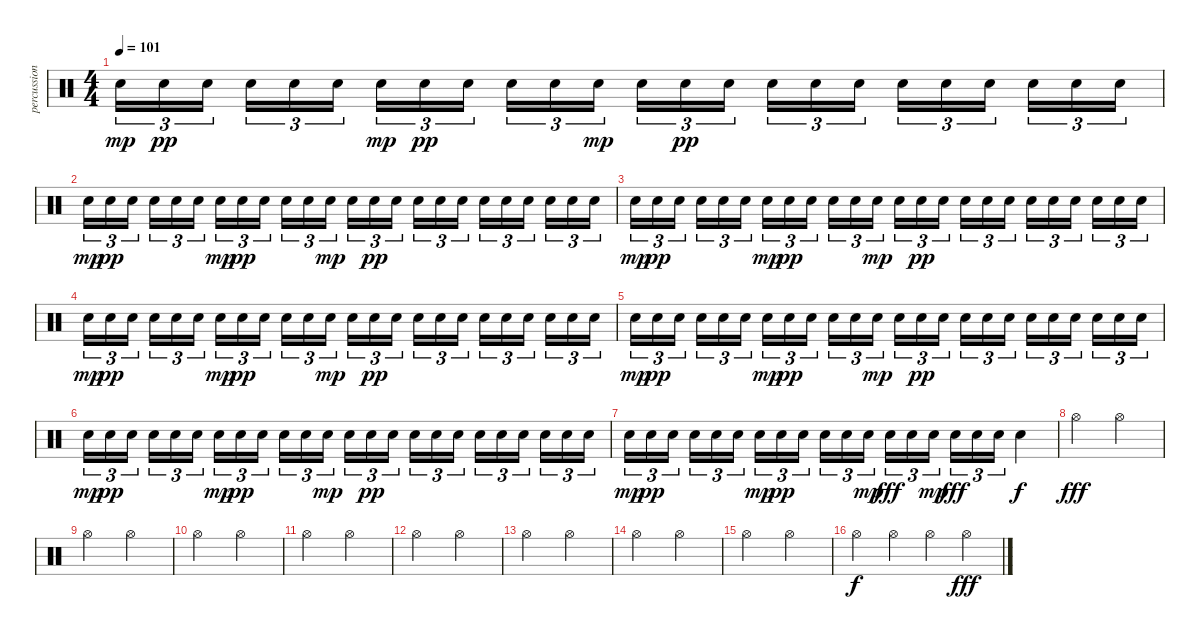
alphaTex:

\track ("percussion" "percussion") {instrument percussion}
\staff {score}
\articulation defaults
\ts (4 4)
\tempo 101
\clef neutral
\ks c "Electric Snare (hit)".16{tu (3 2) dy mp} "Electric Snare (hit)".16{tu (3 2) dy pp} "Electric Snare (hit)".16{tu (3 2)} "Electric Snare (hit)".16{tu (3 2)} "Electric Snare (hit)".16{tu (3 2)} "Electric Snare (hit)".16{tu (3 2)} "Electric Snare (hit)".16{tu (3 2) dy mp} "Electric Snare (hit)".16{tu (3 2) dy pp} "Electric Snare (hit)".16{tu (3 2)} "Electric Snare (hit)".16{tu (3 2)} "Electric Snare (hit)".16{tu (3 2)} "Electric Snare (hit)".16{tu (3 2) dy mp} "Electric Snare (hit)".16{tu (3 2)} "Electric Snare (hit)".16{tu (3 2) dy pp} "Electric Snare (hit)".16{tu (3 2)} "Electric Snare (hit)".16{tu (3 2)} "Electric Snare (hit)".16{tu (3 2)} "Electric Snare (hit)".16{tu (3 2)} "Electric Snare (hit)".16{tu (3 2)} "Electric Snare (hit)".16{tu (3 2)} "Electric Snare (hit)".16{tu (3 2)} "Electric Snare (hit)".16{tu (3 2)} "Electric Snare (hit)".16{tu (3 2)} "Electric Snare (hit)".16{tu (3 2)}
|
"Electric Snare (hit)".16{tu (3 2) dy mp} "Electric Snare (hit)".16{tu (3 2) dy pp} "Electric Snare (hit)".16{tu (3 2)} "Electric Snare (hit)".16{tu (3 2)} "Electric Snare (hit)".16{tu (3 2)} "Electric Snare (hit)".16{tu (3 2)} "Electric Snare (hit)".16{tu (3 2) dy mp} "Electric Snare (hit)".16{tu (3 2) dy pp} "Electric Snare (hit)".16{tu (3 2)} "Electric Snare (hit)".16{tu (3 2)} "Electric Snare (hit)".16{tu (3 2)} "Electric Snare (hit)".16{tu (3 2) dy mp} "Electric Snare (hit)".16{tu (3 2)} "Electric Snare (hit)".16{tu (3 2) dy pp} "Electric Snare (hit)".16{tu (3 2)} "Electric Snare (hit)".16{tu (3 2)} "Electric Snare (hit)".16{tu (3 2)} "Electric Snare (hit)".16{tu (3 2)} "Electric Snare (hit)".16{tu (3 2)} "Electric Snare (hit)".16{tu (3 2)} "Electric Snare (hit)".16{tu (3 2)} "Electric Snare (hit)".16{tu (3 2)} "Electric Snare (hit)".16{tu (3 2)} "Electric Snare (hit)".16{tu (3 2)} |
"Electric Snare (hit)".16{tu (3 2) dy mp} "Electric Snare (hit)".16{tu (3 2) dy pp} "Electric Snare (hit)".16{tu (3 2)} "Electric Snare (hit)".16{tu (3 2)} "Electric Snare (hit)".16{tu (3 2)} "Electric Snare (hit)".16{tu (3 2)} "Electric Snare (hit)".16{tu (3 2) dy mp} "Electric Snare (hit)".16{tu (3 2) dy pp} "Electric Snare (hit)".16{tu (3 2)} "Electric Snare (hit)".16{tu (3 2)} "Electric Snare (hit)".16{tu (3 2)} "Electric Snare (hit)".16{tu (3 2) dy mp} "Electric Snare (hit)".16{tu (3 2)} "Electric Snare (hit)".16{tu (3 2) dy pp} "Electric Snare (hit)".16{tu (3 2)} "Electric Snare (hit)".16{tu (3 2)} "Electric Snare (hit)".16{tu (3 2)} "Electric Snare (hit)".16{tu (3 2)} "Electric Snare (hit)".16{tu (3 2)} "Electric Snare (hit)".16{tu (3 2)} "Electric Snare (hit)".16{tu (3 2)} "Electric Snare (hit)".16{tu (3 2)} "Electric Snare (hit)".16{tu (3 2)} "Electric Snare (hit)".16{tu (3 2)} |
"Electric Snare (hit)".16{tu (3 2) dy mp} "Electric Snare (hit)".16{tu (3 2) dy pp} "Electric Snare (hit)".16{tu (3 2)} "Electric Snare (hit)".16{tu (3 2)} "Electric Snare (hit)".16{tu (3 2)} "Electric Snare (hit)".16{tu (3 2)} "Electric Snare (hit)".16{tu (3 2) dy mp} "Electric Snare (hit)".16{tu (3 2) dy pp} "Electric Snare (hit)".16{tu (3 2)} "Electric Snare (hit)".16{tu (3 2)} "Electric Snare (hit)".16{tu (3 2)} "Electric Snare (hit)".16{tu (3 2) dy mp} "Electric Snare (hit)".16{tu (3 2)} "Electric Snare (hit)".16{tu (3 2) dy pp} "Electric Snare (hit)".16{tu (3 2)} "Electric Snare (hit)".16{tu (3 2)} "Electric Snare (hit)".16{tu (3 2)} "Electric Snare (hit)".16{tu (3 2)} "Electric Snare (hit)".16{tu (3 2)} "Electric Snare (hit)".16{tu (3 2)} "Electric Snare (hit)".16{tu (3 2)} "Electric Snare (hit)".16{tu (3 2)} "Electric Snare (hit)".16{tu (3 2)} "Electric Snare (hit)".16{tu (3 2)} |
"Electric Snare (hit)".16{tu (3 2) dy mp} "Electric Snare (hit)".16{tu (3 2) dy pp} "Electric Snare (hit)".16{tu (3 2)} "Electric Snare (hit)".16{tu (3 2)} "Electric Snare (hit)".16{tu (3 2)} "Electric Snare (hit)".16{tu (3 2)} "Electric Snare (hit)".16{tu (3 2) dy mp} "Electric Snare (hit)".16{tu (3 2) dy pp} "Electric Snare (hit)".16{tu (3 2)} "Electric Snare (hit)".16{tu (3 2)} "Electric Snare (hit)".16{tu (3 2)} "Electric Snare (hit)".16{tu (3 2) dy mp} "Electric Snare (hit)".16{tu (3 2)} "Electric Snare (hit)".16{tu (3 2) dy pp} "Electric Snare (hit)".16{tu (3 2)} "Electric Snare (hit)".16{tu (3 2)} "Electric Snare (hit)".16{tu (3 2)} "Electric Snare (hit)".16{tu (3 2)} "Electric Snare (hit)".16{tu (3 2)} "Electric Snare (hit)".16{tu (3 2)} "Electric Snare (hit)".16{tu (3 2)} "Electric Snare (hit)".16{tu (3 2)} "Electric Snare (hit)".16{tu (3 2)} "Electric Snare (hit)".16{tu (3 2)} |
"Electric Snare (hit)".16{tu (3 2) dy mp} "Electric Snare (hit)".16{tu (3 2) dy pp} "Electric Snare (hit)".16{tu (3 2)} "Electric Snare (hit)".16{tu (3 2)} "Electric Snare (hit)".16{tu (3 2)} "Electric Snare (hit)".16{tu (3 2)} "Electric Snare (hit)".16{tu (3 2) dy mp} "Electric Snare (hit)".16{tu (3 2) dy pp} "Electric Snare (hit)".16{tu (3 2)} "Electric Snare (hit)".16{tu (3 2)} "Electric Snare (hit)".16{tu (3 2)} "Electric Snare (hit)".16{tu (3 2) dy mp} "Electric Snare (hit)".16{tu (3 2)} "Electric Snare (hit)".16{tu (3 2) dy pp} "Electric Snare (hit)".16{tu (3 2)} "Electric Snare (hit)".16{tu (3 2)} "Electric Snare (hit)".16{tu (3 2)} "Electric Snare (hit)".16{tu (3 2)} "Electric Snare (hit)".16{tu (3 2)} "Electric Snare (hit)".16{tu (3 2)} "Electric Snare (hit)".16{tu (3 2)} "Electric Snare (hit)".16{tu (3 2)} "Electric Snare (hit)".16{tu (3 2)} "Electric Snare (hit)".16{tu (3 2)} |
"Electric Snare (hit)".16{tu (3 2) dy mp} "Electric Snare (hit)".16{tu (3 2) dy pp} "Electric Snare (hit)".16{tu (3 2)} "Electric Snare (hit)".16{tu (3 2)} "Electric Snare (hit)".16{tu (3 2)} "Electric Snare (hit)".16{tu (3 2)} "Electric Snare (hit)".16{tu (3 2) dy mp} "Electric Snare (hit)".16{tu (3 2) dy pp} "Electric Snare (hit)".16{tu (3 2)} "Electric Snare (hit)".16{tu (3 2)} "Electric Snare (hit)".16{tu (3 2)} "Electric Snare (hit)".16{tu (3 2) dy mp} "Electric Snare (hit)".16{tu (3 2) dy fff} "Electric Snare (hit)".16{tu (3 2)} "Electric Snare (hit)".16{tu (3 2) dy mp} "Electric Snare (hit)".16{tu (3 2) dy fff} "Electric Snare (hit)".16{tu (3 2)} "Electric Snare (hit)".16{tu (3 2)} "Electric Snare (hit)".4{dy f} |
"Hi-Hat (open)".2{dy fff} "Hi-Hat (open)".2 |
"Hi-Hat (open)".2 "Hi-Hat (open)".2 |
"Hi-Hat (open)".2 "Hi-Hat (open)".2 |
"Hi-Hat (open)".2 "Hi-Hat (open)".2 |
"Hi-Hat (open)".2 "Hi-Hat (open)".2 |
"Hi-Hat (open)".2 "Hi-Hat (open)".2 |
"Hi-Hat (open)".2 "Hi-Hat (open)".2 |
"Hi-Hat (open)".2 "Hi-Hat (open)".2 |
"Hi-Hat (open)".4{dy f} "Hi-Hat (open)".4 "Hi-Hat (open)".4 "Hi-Hat (open)".4{dy fff}
